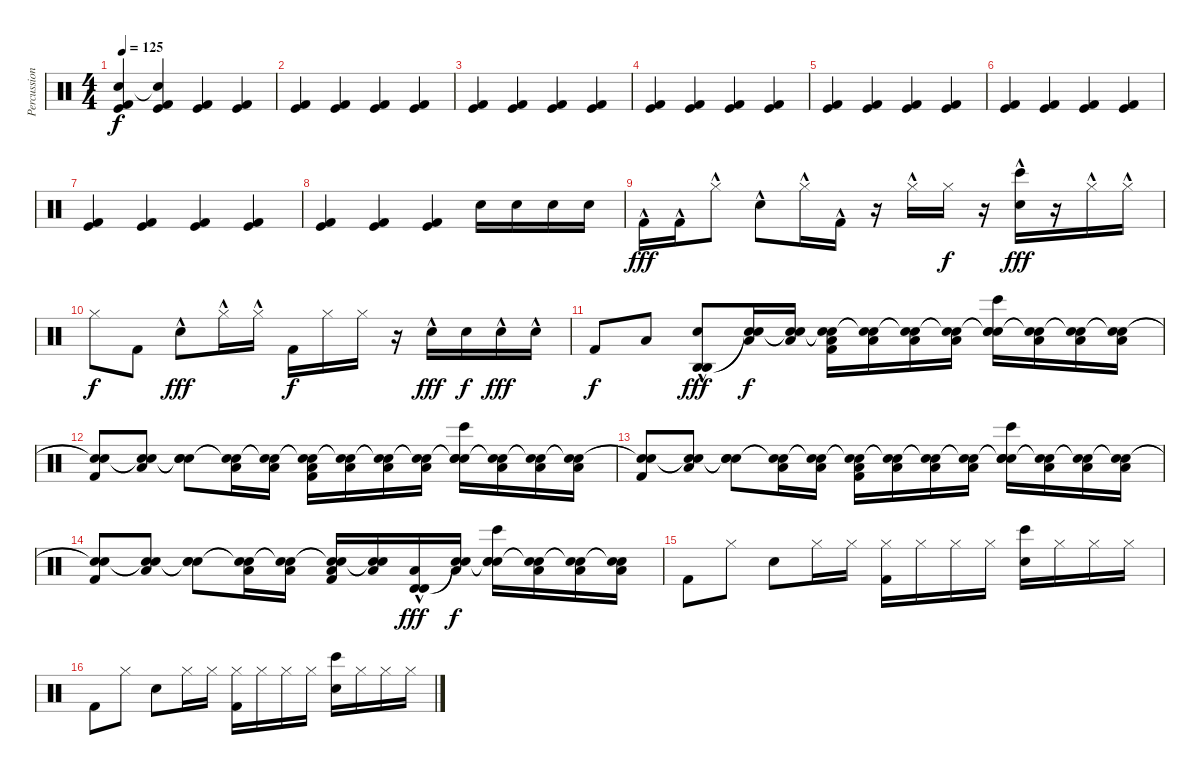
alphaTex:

\track ("Percussion" "Percussion") {instrument percussion}
\staff {score}
\articulation defaults
\ts (4 4)
\tempo 125
\clef neutral
\ks c
("Snare (hit)"{t} "Kick (hit)" "Kick (hit) 2").4{dy f} ("Snare (hit)"{t} "Kick (hit)" "Kick (hit) 2").4 ("Kick (hit) 2" "Kick (hit)").4 ("Kick (hit)" "Kick (hit) 2").4 |
("Kick (hit)" "Kick (hit) 2").4 ("Kick (hit)" "Kick (hit) 2").4 ("Kick (hit) 2" "Kick (hit)").4 ("Kick (hit)" "Kick (hit) 2").4 |
("Kick (hit)" "Kick (hit) 2").4 ("Kick (hit)" "Kick (hit) 2").4 ("Kick (hit) 2" "Kick (hit)").4 ("Kick (hit)" "Kick (hit) 2").4 |
("Kick (hit)" "Kick (hit) 2").4 ("Kick (hit)" "Kick (hit) 2").4 ("Kick (hit) 2" "Kick (hit)").4 ("Kick (hit)" "Kick (hit) 2").4 |
("Kick (hit)" "Kick (hit) 2").4 ("Kick (hit)" "Kick (hit) 2").4 ("Kick (hit) 2" "Kick (hit)").4 ("Kick (hit)" "Kick (hit) 2").4 |
("Kick (hit)" "Kick (hit) 2").4 ("Kick (hit)" "Kick (hit) 2").4 ("Kick (hit) 2" "Kick (hit)").4 ("Kick (hit)" "Kick (hit) 2").4 |
("Kick (hit)" "Kick (hit) 2").4 ("Kick (hit)" "Kick (hit) 2").4 ("Kick (hit) 2" "Kick (hit)").4 ("Kick (hit)" "Kick (hit) 2").4 |
("Kick (hit)" "Kick (hit) 2").4 ("Kick (hit)" "Kick (hit) 2").4 ("Kick (hit) 2" "Kick (hit)").4 "Snare (hit) 2".16 "Snare (hit) 2".16 "Snare (hit) 2".16 "Snare (hit) 2".16 |
"Kick (hit) 2"{hac}.16{dy fff} "Kick (hit) 2"{hac}.16 "Hi-Hat (closed)"{hac}.8 "Snare (hit) 2"{hac}.8 "Hi-Hat (closed)"{hac}.16 "Kick (hit) 2"{hac}.16 r.16 "Hi-Hat (closed)"{hac}.16 "Hi-Hat (closed)".16{dy f} r.16 ("Bongo High (hit)"{hac} "Snare (hit) 2"{hac}).16{dy fff} r.16 "Hi-Hat (closed)"{hac}.16 "Hi-Hat (closed)"{hac}.16 |
"Hi-Hat (closed)".8{dy f} "Kick (hit) 2".8 "Snare (hit) 2"{hac}.8{dy fff} "Hi-Hat (closed)"{hac}.16 "Hi-Hat (closed)"{hac}.16 "Kick (hit) 2".16{dy f} "Hi-Hat (closed)".16 "Hi-Hat (closed)".16 r.16 "Snare (hit) 2"{hac}.16{dy fff} "Snare (hit) 2".16{dy f} "Snare (hit) 2"{hac}.16{dy fff} "Snare (hit) 2"{hac}.16 |
"Kick (hit) 2".8{dy f} "Low Tom (hit)".8 ("Agogo high (hit)"{hac} "Agogo high (hit)"{hac} "Snare (hit) 2").8{dy fff} ("Snare (hit)"{t} "Snare (hit)"{t} "Low Tom (hit)").16{dy f} ("Snare (hit)"{t} "Snare (hit)"{t} "Low Tom (hit)").16 ("Snare (hit)"{t} "Snare (hit)"{t} "Low Tom (hit)" "Kick (hit) 2").16 ("Snare (hit)"{t} "Snare (hit)"{t} "Low Tom (hit)").16 ("Snare (hit)"{t} "Snare (hit)"{t} "Low Tom (hit)").16 ("Snare (hit)"{t} "Snare (hit)"{t} "Low Tom (hit)").16 ("Snare (hit)"{t} "Snare (hit)"{t} "Bongo High (hit)" "Snare (hit) 2").16 ("Snare (hit)"{t} "Snare (hit)"{t} "Low Tom (hit)").16 ("Snare (hit)"{t} "Snare (hit)"{t} "Low Tom (hit)").16 ("Snare (hit)"{t} "Snare (hit)"{t} "Low Tom (hit)").16 |
("Snare (hit)"{t} "Snare (hit)"{t} "Kick (hit) 2").8 ("Snare (hit)"{t} "Snare (hit)"{t} "Low Tom (hit)").8 ("Snare (hit)"{t} "Snare (hit)"{t} "Snare (hit) 2").8 ("Snare (hit)"{t} "Snare (hit)"{t} "Low Tom (hit)").16 ("Snare (hit)"{t} "Snare (hit)"{t} "Low Tom (hit)").16 ("Snare (hit)"{t} "Snare (hit)"{t} "Low Tom (hit)" "Kick (hit) 2").16 ("Snare (hit)"{t} "Snare (hit)"{t} "Low Tom (hit)").16 ("Snare (hit)"{t} "Snare (hit)"{t} "Low Tom (hit)").16 ("Snare (hit)"{t} "Snare (hit)"{t} "Low Tom (hit)").16 ("Snare (hit)"{t} "Snare (hit)"{t} "Bongo High (hit)" "Snare (hit) 2").16 ("Snare (hit)"{t} "Snare (hit)"{t} "Low Tom (hit)").16 ("Snare (hit)"{t} "Snare (hit)"{t} "Low Tom (hit)").16 ("Snare (hit)"{t} "Snare (hit)"{t} "Low Tom (hit)").16 |
("Snare (hit)"{t} "Snare (hit)"{t} "Kick (hit) 2").8 ("Snare (hit)"{t} "Snare (hit)"{t} "Low Tom (hit)").8 ("Snare (hit)"{t} "Snare (hit)"{t} "Snare (hit) 2").8 ("Snare (hit)"{t} "Snare (hit)"{t} "Low Tom (hit)").16 ("Snare (hit)"{t} "Snare (hit)"{t} "Low Tom (hit)").16 ("Snare (hit)"{t} "Snare (hit)"{t} "Low Tom (hit)" "Kick (hit) 2").16 ("Snare (hit)"{t} "Snare (hit)"{t} "Low Tom (hit)").16 ("Snare (hit)"{t} "Snare (hit)"{t} "Low Tom (hit)").16 ("Snare (hit)"{t} "Snare (hit)"{t} "Low Tom (hit)").16 ("Snare (hit)"{t} "Snare (hit)"{t} "Bongo High (hit)" "Snare (hit) 2").16 ("Snare (hit)"{t} "Snare (hit)"{t} "Low Tom (hit)").16 ("Snare (hit)"{t} "Snare (hit)"{t} "Low Tom (hit)").16 ("Snare (hit)"{t} "Snare (hit)"{t} "Low Tom (hit)").16 |
("Snare (hit)"{t} "Snare (hit)"{t} "Kick (hit) 2").8 ("Snare (hit)"{t} "Snare (hit)"{t} "Low Tom (hit)").8 ("Snare (hit)"{t} "Snare (hit)"{t} "Snare (hit) 2").8 ("Snare (hit)"{t} "Snare (hit)"{t} "Low Tom (hit)").16 ("Snare (hit)"{t} "Snare (hit)"{t} "Low Tom (hit)").16 ("Snare (hit)"{t} "Snare (hit)"{t} "Low Tom (hit)" "Kick (hit) 2").16 ("Snare (hit)"{t} "Snare (hit)"{t} "Low Tom (hit)").16 ("Timbale high (hit)"{hac} "Timbale high (hit)"{hac} "Low Tom (hit)").16{dy fff} ("Snare (hit)"{t} "Snare (hit)"{t} "Low Tom (hit)").16{dy f} ("Snare (hit)"{t} "Snare (hit)"{t} "Bongo High (hit)" "Snare (hit) 2").16 ("Snare (hit)"{t} "Snare (hit)"{t} "Low Tom (hit)").16 ("Snare (hit)"{t} "Snare (hit)"{t} "Low Tom (hit)").16 ("Snare (hit)"{t} "Snare (hit)"{t} "Low Tom (hit)").16 |
"Kick (hit) 2".8 "Hi-Hat (closed)".8 "Snare (hit) 2".8 "Hi-Hat (closed)".16 "Hi-Hat (closed)".16 ("Hi-Hat (closed)" "Kick (hit) 2").16 "Hi-Hat (closed)".16 "Hi-Hat (closed)".16 "Hi-Hat (closed)".16 ("Bongo High (hit)" "Snare (hit) 2").16 "Hi-Hat (closed)".16 "Hi-Hat (closed)".16 "Hi-Hat (closed)".16 |
"Kick (hit) 2".8 "Hi-Hat (closed)".8 "Snare (hit) 2".8 "Hi-Hat (closed)".16 "Hi-Hat (closed)".16 ("Hi-Hat (closed)" "Kick (hit) 2").16 "Hi-Hat (closed)".16 "Hi-Hat (closed)".16 "Hi-Hat (closed)".16 ("Bongo High (hit)" "Snare (hit) 2").16 "Hi-Hat (closed)".16 "Hi-Hat (closed)".16 "Hi-Hat (closed)".16
